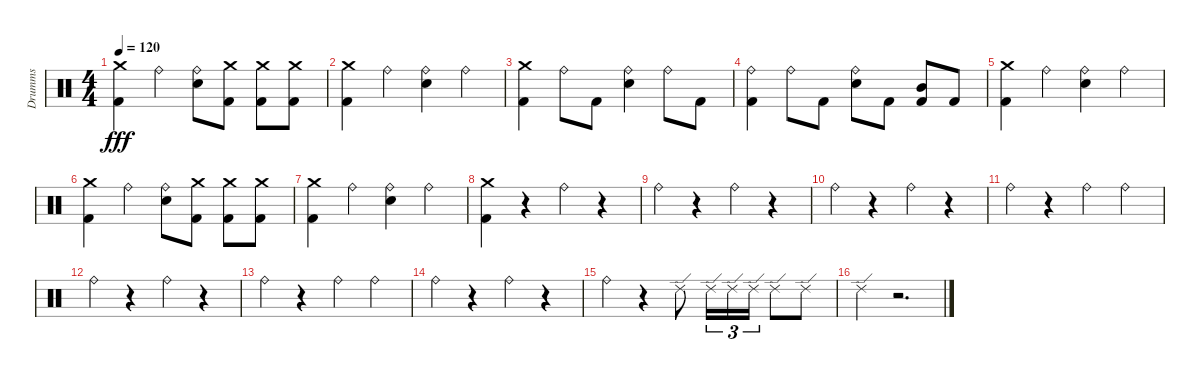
\track ("Drumms" "Drumms") {instrument percussion}
\staff {score}
\articulation defaults
\ts (4 4)
\tempo 120
\clef neutral
\ks c
("Kick (hit) 2" "Crash medium (hit)").4{dy fff} "Ride (bell)".4 ("Snare (hit) 2" "Ride (bell)").8 ("Kick (hit) 2" "Crash medium (hit)").8 ("Kick (hit) 2" "Crash medium (hit)").8 ("Kick (hit) 2" "Crash medium (hit)").8 |
("Kick (hit) 2" "Crash medium (hit)").4 "Ride (bell)".4 ("Ride (bell)" "Snare (hit) 2").4 "Ride (bell)".4 |
("Crash medium (hit)" "Kick (hit) 2").4 "Ride (bell)".8 "Kick (hit) 2".8 ("Ride (bell)" "Snare (hit) 2").4 "Ride (bell)".8 "Kick (hit) 2".8 |
("Kick (hit) 2" "Ride (bell)").4 "Ride (bell)".8 "Kick (hit) 2".8 ("Snare (hit) 2" "Ride (bell)").8 "Kick (hit) 2".8 ("Kick (hit) 2" "Mid Tom (hit)").8 "Kick (hit) 2".8 |
("Crash medium (hit)" "Kick (hit) 2").4 "Ride (bell)".4 ("Ride (bell)" "Snare (hit) 2").4 "Ride (bell)".4 |
("Kick (hit) 2" "Crash medium (hit)").4 "Ride (bell)".4 ("Snare (hit) 2" "Ride (bell)").8 ("Kick (hit) 2" "Crash medium (hit)").8 ("Kick (hit) 2" "Crash medium (hit)").8 ("Kick (hit) 2" "Crash medium (hit)").8 |
("Crash medium (hit)" "Kick (hit) 2").4 "Ride (bell)".4 ("Ride (bell)" "Snare (hit) 2").4 "Ride (bell)".4 |
("Kick (hit) 2" "Crash medium (hit)").4 r.4 "Ride (bell)".4 r.4 |
"Ride (bell)".4 r.4 "Ride (bell)".4 r.4 |
"Ride (bell)".4 r.4 "Ride (bell)".4 r.4 |
"Ride (bell)".4 r.4 "Ride (bell)".4 "Ride (bell)".4 |
"Ride (bell)".4 r.4 "Ride (bell)".4 r.4 |
"Ride (bell)".4 r.4 "Ride (bell)".4 "Ride (bell)".4 |
"Ride (bell)".4 r.4 "Ride (bell)".4 r.4 |
"Ride (bell)".4 r.4 "Ride (edge) 2".8 "Ride (edge) 2".16{tu (3 2)} "Ride (edge) 2".16{tu (3 2)} "Ride (edge) 2".16{tu (3 2)} "Ride (edge) 2".8 "Ride (edge) 2".8 |
"Ride (edge) 2".4 r.2{d}
